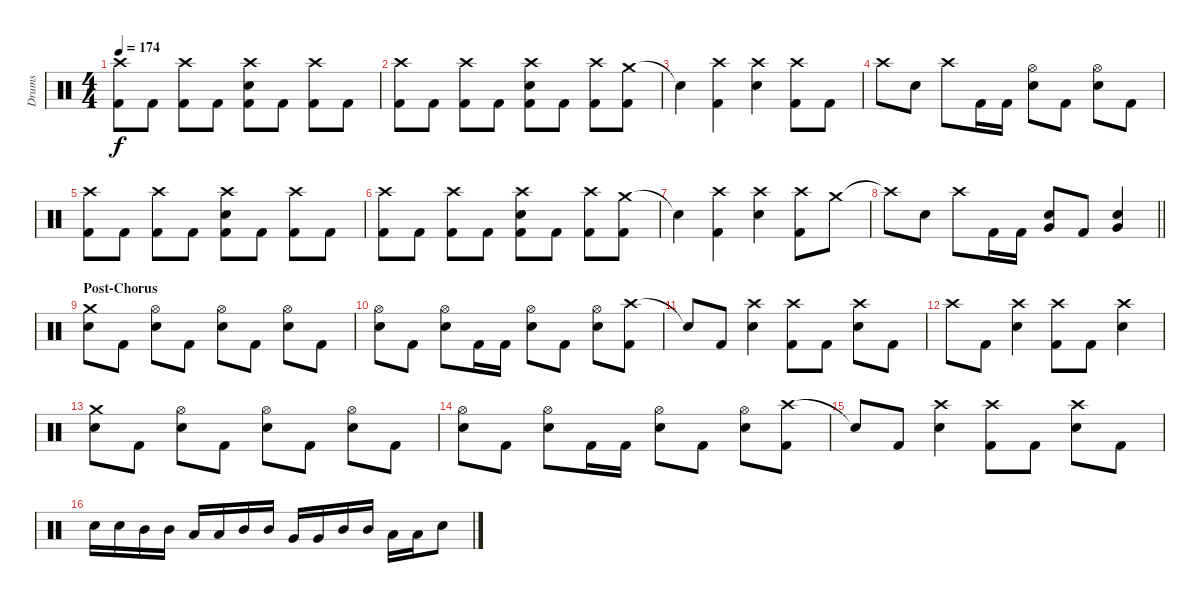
\track ("Drums" "Drums") {instrument percussion}
\staff {score}
\articulation defaults
\ts (4 4)
\tempo 174
\clef neutral
\ks c
("Crash high (hit)" "Kick (hit) 2").8{dy f} "Kick (hit) 2".8 ("Crash high (hit)" "Kick (hit) 2").8 "Kick (hit) 2".8 ("Crash high (hit)" "Electric Snare (hit)" "Kick (hit) 2").8 "Kick (hit) 2".8 ("Crash high (hit)" "Kick (hit) 2").8 "Kick (hit) 2".8 |
("Crash high (hit)" "Kick (hit) 2").8 "Kick (hit) 2".8 ("Crash high (hit)" "Kick (hit) 2").8 "Kick (hit) 2".8 ("Crash high (hit)" "Electric Snare (hit)" "Kick (hit) 2").8 "Kick (hit) 2".8 ("Crash high (hit)" "Kick (hit) 2").8 ("Crash medium (hit)" "Kick (hit) 2").8 |
"Snare (hit)"{t}.4 ("Crash high (hit)" "Kick (hit) 2").4 ("Crash high (hit)" "Electric Snare (hit)").4 ("Crash high (hit)" "Kick (hit) 2").8 "Kick (hit) 2".8 |
"Crash high (hit)".8 "Electric Snare (hit)".8 "Crash high (hit)".8 "Kick (hit) 2".16 "Kick (hit) 2".16 ("Hi-Hat (open)" "Electric Snare (hit)").8 "Kick (hit) 2".8 ("Hi-Hat (open)" "Electric Snare (hit)").8 "Kick (hit) 2".8 |
("Crash high (hit)" "Kick (hit) 2").8 "Kick (hit) 2".8 ("Crash high (hit)" "Kick (hit) 2").8 "Kick (hit) 2".8 ("Crash high (hit)" "Electric Snare (hit)" "Kick (hit) 2").8 "Kick (hit) 2".8 ("Crash high (hit)" "Kick (hit) 2").8 "Kick (hit) 2".8 |
("Crash high (hit)" "Kick (hit) 2").8 "Kick (hit) 2".8 ("Crash high (hit)" "Kick (hit) 2").8 "Kick (hit) 2".8 ("Crash high (hit)" "Electric Snare (hit)" "Kick (hit) 2").8 "Kick (hit) 2".8 ("Crash high (hit)" "Kick (hit) 2").8 ("Crash medium (hit)" "Kick (hit) 2").8 |
"Snare (hit)"{t}.4 ("Crash high (hit)" "Kick (hit) 2").4 ("Crash high (hit)" "Electric Snare (hit)").4 ("Crash high (hit)" "Kick (hit) 2").8 "Crash medium (hit)".8 |
\barLineRight lightlight "Crash high (hit)"{t}.8 "Electric Snare (hit)".8 "Crash high (hit)".8 "Kick (hit) 2".16 "Kick (hit) 2".16
("Very Low Tom (hit)" "Electric Snare (hit)").8 "Kick (hit) 2".8 ("Very Low Tom (hit)" "Electric Snare (hit)").4 |
\section ("" "Post-Chorus")
("Crash medium (hit)" "Electric Snare (hit)").8 "Kick (hit) 2".8 ("Hi-Hat (open)" "Electric Snare (hit)").8 "Kick (hit) 2".8 ("Hi-Hat (open)" "Electric Snare (hit)").8 "Kick (hit) 2".8 ("Hi-Hat (open)" "Electric Snare (hit)").8 "Kick (hit) 2".8 |
("Hi-Hat (open)" "Electric Snare (hit)").8 "Kick (hit) 2".8 ("Hi-Hat (open)" "Electric Snare (hit)").8 "Kick (hit) 2".16 "Kick (hit) 2".16 ("Hi-Hat (open)" "Electric Snare (hit)").8 "Kick (hit) 2".8 ("Hi-Hat (open)" "Electric Snare (hit)").8 ("Crash high (hit)" "Kick (hit) 2").8 |
"Snare (hit)"{t}.8 "Kick (hit) 2".8 ("Crash high (hit)" "Electric Snare (hit)").4 ("Crash high (hit)" "Kick (hit) 2").8 "Kick (hit) 2".8 ("Crash high (hit)" "Electric Snare (hit)").8 "Kick (hit) 2".8 |
"Crash high (hit)".8 "Kick (hit) 2".8 ("Crash high (hit)" "Electric Snare (hit)").4 ("Crash high (hit)" "Kick (hit) 2").8 "Kick (hit) 2".8 ("Crash high (hit)" "Electric Snare (hit)").4 |
("Crash medium (hit)" "Electric Snare (hit)").8 "Kick (hit) 2".8 ("Hi-Hat (open)" "Electric Snare (hit)").8 "Kick (hit) 2".8 ("Hi-Hat (open)" "Electric Snare (hit)").8 "Kick (hit) 2".8 ("Hi-Hat (open)" "Electric Snare (hit)").8 "Kick (hit) 2".8 |
("Hi-Hat (open)" "Electric Snare (hit)").8 "Kick (hit) 2".8 ("Hi-Hat (open)" "Electric Snare (hit)").8 "Kick (hit) 2".16 "Kick (hit) 2".16 ("Hi-Hat (open)" "Electric Snare (hit)").8 "Kick (hit) 2".8 ("Hi-Hat (open)" "Electric Snare (hit)").8 ("Crash high (hit)" "Kick (hit) 2").8 |
"Snare (hit)"{t}.8 "Kick (hit) 2".8 ("Crash high (hit)" "Electric Snare (hit)").4 ("Crash high (hit)" "Kick (hit) 2").8 "Kick (hit) 2".8 ("Crash high (hit)" "Electric Snare (hit)").8 "Kick (hit) 2".8 |
"Electric Snare (hit)".16 "Electric Snare (hit)".16 "Mid Tom (hit)".16 "Mid Tom (hit)".16 "Low Tom (hit)".16 "Low Tom (hit)".16 "Mid Tom (hit)".16 "Mid Tom (hit)".16 "Very Low Tom (hit)".16 "Very Low Tom (hit)".16 "Mid Tom (hit)".16 "Mid Tom (hit)".16 "Low Floor Tom (hit)".16 "Low Floor Tom (hit)".16 "Electric Snare (hit)".8
